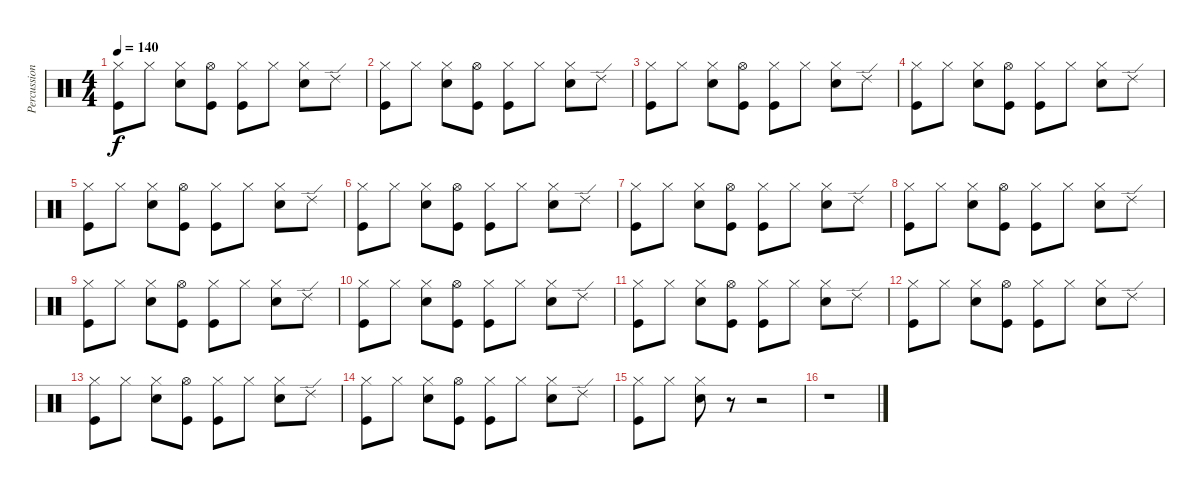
\track ("Percussion" "Percussion") {instrument percussion}
\staff {score}
\articulation defaults
\ts (4 4)
\tempo 140
\clef neutral
\ks c
("Hi-Hat (closed)" "Kick (hit)").8{dy f} "Hi-Hat (closed)".8 ("Hi-Hat (closed)" "Snare (hit) 2").8 ("Hi-Hat (open)" "Kick (hit)").8 ("Hi-Hat (closed)" "Kick (hit)").8 "Hi-Hat (closed)".8 ("Hi-Hat (closed)" "Snare (hit) 2").8 "Ride (edge) 2".8 |
("Hi-Hat (closed)" "Kick (hit)").8 "Hi-Hat (closed)".8 ("Hi-Hat (closed)" "Snare (hit) 2").8 ("Hi-Hat (open)" "Kick (hit)").8 ("Hi-Hat (closed)" "Kick (hit)").8 "Hi-Hat (closed)".8 ("Hi-Hat (closed)" "Snare (hit) 2").8 "Ride (edge) 2".8 |
("Hi-Hat (closed)" "Kick (hit)").8 "Hi-Hat (closed)".8 ("Hi-Hat (closed)" "Snare (hit) 2").8 ("Hi-Hat (open)" "Kick (hit)").8 ("Hi-Hat (closed)" "Kick (hit)").8 "Hi-Hat (closed)".8 ("Hi-Hat (closed)" "Snare (hit) 2").8 "Ride (edge) 2".8 |
("Hi-Hat (closed)" "Kick (hit)").8 "Hi-Hat (closed)".8 ("Hi-Hat (closed)" "Snare (hit) 2").8 ("Hi-Hat (open)" "Kick (hit)").8 ("Hi-Hat (closed)" "Kick (hit)").8 "Hi-Hat (closed)".8 ("Hi-Hat (closed)" "Snare (hit) 2").8 "Ride (edge) 2".8 |
("Hi-Hat (closed)" "Kick (hit)").8 "Hi-Hat (closed)".8 ("Hi-Hat (closed)" "Snare (hit) 2").8 ("Hi-Hat (open)" "Kick (hit)").8 ("Hi-Hat (closed)" "Kick (hit)").8 "Hi-Hat (closed)".8 ("Hi-Hat (closed)" "Snare (hit) 2").8 "Ride (edge) 2".8 |
("Hi-Hat (closed)" "Kick (hit)").8 "Hi-Hat (closed)".8 ("Hi-Hat (closed)" "Snare (hit) 2").8 ("Hi-Hat (open)" "Kick (hit)").8 ("Hi-Hat (closed)" "Kick (hit)").8 "Hi-Hat (closed)".8 ("Hi-Hat (closed)" "Snare (hit) 2").8 "Ride (edge) 2".8 |
("Hi-Hat (closed)" "Kick (hit)").8 "Hi-Hat (closed)".8 ("Hi-Hat (closed)" "Snare (hit) 2").8 ("Hi-Hat (open)" "Kick (hit)").8 ("Hi-Hat (closed)" "Kick (hit)").8 "Hi-Hat (closed)".8 ("Hi-Hat (closed)" "Snare (hit) 2").8 "Ride (edge) 2".8 |
("Hi-Hat (closed)" "Kick (hit)").8 "Hi-Hat (closed)".8 ("Hi-Hat (closed)" "Snare (hit) 2").8 ("Hi-Hat (open)" "Kick (hit)").8 ("Hi-Hat (closed)" "Kick (hit)").8 "Hi-Hat (closed)".8 ("Hi-Hat (closed)" "Snare (hit) 2").8 "Ride (edge) 2".8 |
("Hi-Hat (closed)" "Kick (hit)").8 "Hi-Hat (closed)".8 ("Hi-Hat (closed)" "Snare (hit) 2").8 ("Hi-Hat (open)" "Kick (hit)").8 ("Hi-Hat (closed)" "Kick (hit)").8 "Hi-Hat (closed)".8 ("Hi-Hat (closed)" "Snare (hit) 2").8 "Ride (edge) 2".8 |
("Hi-Hat (closed)" "Kick (hit)").8 "Hi-Hat (closed)".8 ("Hi-Hat (closed)" "Snare (hit) 2").8 ("Hi-Hat (open)" "Kick (hit)").8 ("Hi-Hat (closed)" "Kick (hit)").8 "Hi-Hat (closed)".8 ("Hi-Hat (closed)" "Snare (hit) 2").8 "Ride (edge) 2".8 |
("Hi-Hat (closed)" "Kick (hit)").8 "Hi-Hat (closed)".8 ("Hi-Hat (closed)" "Snare (hit) 2").8 ("Hi-Hat (open)" "Kick (hit)").8 ("Hi-Hat (closed)" "Kick (hit)").8 "Hi-Hat (closed)".8 ("Hi-Hat (closed)" "Snare (hit) 2").8 "Ride (edge) 2".8 |
("Hi-Hat (closed)" "Kick (hit)").8 "Hi-Hat (closed)".8 ("Hi-Hat (closed)" "Snare (hit) 2").8 ("Hi-Hat (open)" "Kick (hit)").8 ("Hi-Hat (closed)" "Kick (hit)").8 "Hi-Hat (closed)".8 ("Hi-Hat (closed)" "Snare (hit) 2").8 "Ride (edge) 2".8 |
("Hi-Hat (closed)" "Kick (hit)").8 "Hi-Hat (closed)".8 ("Hi-Hat (closed)" "Snare (hit) 2").8 ("Hi-Hat (open)" "Kick (hit)").8 ("Hi-Hat (closed)" "Kick (hit)").8 "Hi-Hat (closed)".8 ("Hi-Hat (closed)" "Snare (hit) 2").8 "Ride (edge) 2".8 |
("Hi-Hat (closed)" "Kick (hit)").8 "Hi-Hat (closed)".8 ("Hi-Hat (closed)" "Snare (hit) 2").8 ("Hi-Hat (open)" "Kick (hit)").8 ("Hi-Hat (closed)" "Kick (hit)").8 "Hi-Hat (closed)".8 ("Hi-Hat (closed)" "Snare (hit) 2").8 "Ride (edge) 2".8 |
("Hi-Hat (closed)" "Kick (hit)").8 "Hi-Hat (closed)".8 ("Hi-Hat (closed)" "Snare (hit) 2").8 r.8 r.2 |
r.1
